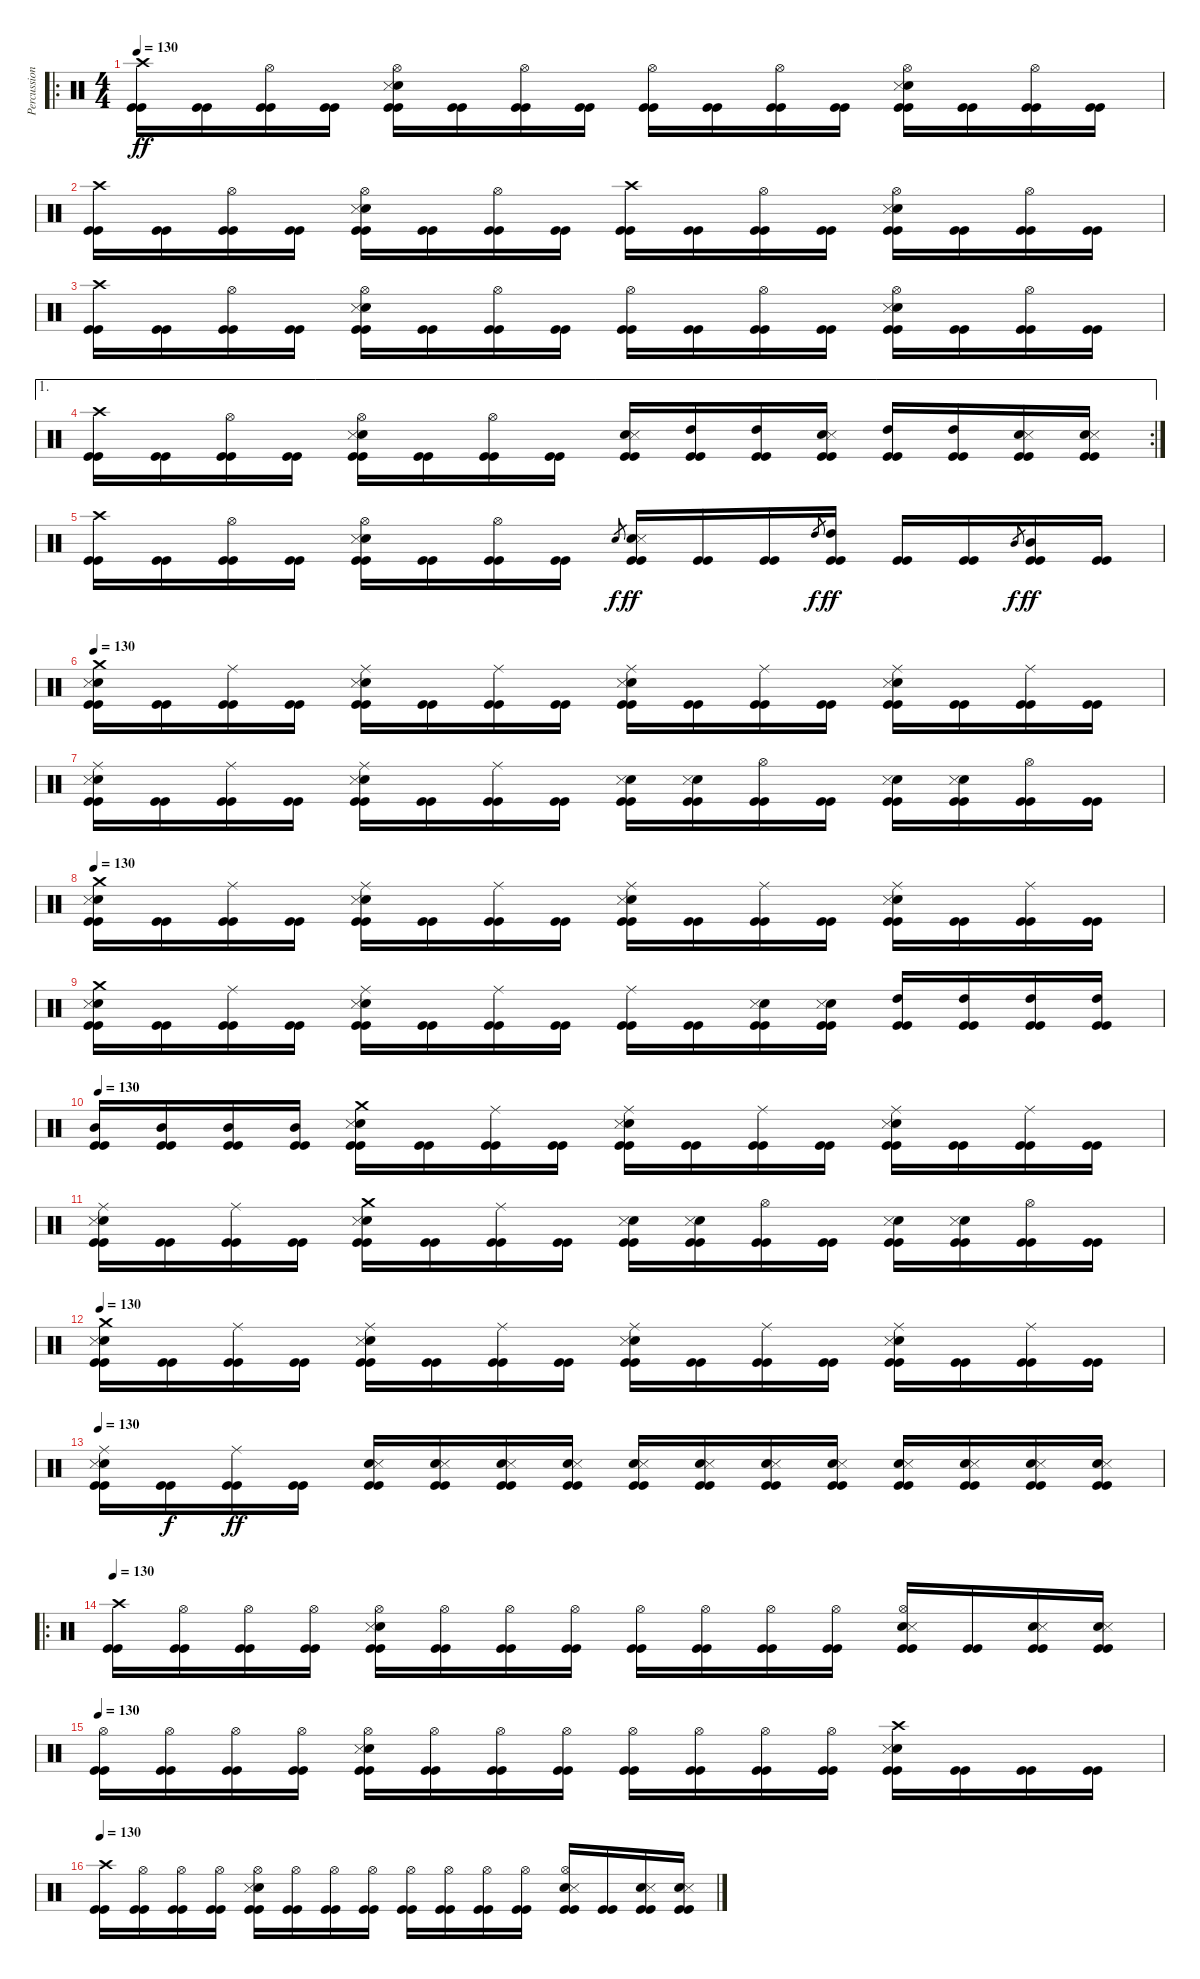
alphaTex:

\track ("Percussion" "Percussion") {instrument percussion}
\staff {score}
\articulation defaults
\ro
\ts (4 4)
\tempo 130
\clef neutral
\ks c
("Crash high (hit)" "Kick (hit)" "Kick (hit)").16{dy ff} ("Kick (hit)" "Kick (hit)").16 ("Hi-Hat (open)" "Kick (hit)" "Kick (hit)").16 ("Kick (hit)" "Kick (hit)").16 ("Electric Snare (hit)" "Snare (side stick) 3" "Hi-Hat (open)" "Kick (hit)" "Kick (hit)").16 ("Kick (hit)" "Kick (hit)").16 ("Hi-Hat (open)" "Kick (hit)" "Kick (hit)").16 ("Kick (hit)" "Kick (hit)").16 ("Hi-Hat (open)" "Kick (hit)" "Kick (hit)").16 ("Kick (hit)" "Kick (hit)").16 ("Hi-Hat (open)" "Kick (hit)" "Kick (hit)").16 ("Kick (hit)" "Kick (hit)").16 ("Electric Snare (hit)" "Snare (side stick) 3" "Hi-Hat (open)" "Kick (hit)" "Kick (hit)").16 ("Kick (hit)" "Kick (hit)").16 ("Hi-Hat (open)" "Kick (hit)" "Kick (hit)").16 ("Kick (hit)" "Kick (hit)").16 |
("Crash high (hit)" "Kick (hit)" "Kick (hit)").16 ("Kick (hit)" "Kick (hit)").16 ("Hi-Hat (open)" "Kick (hit)" "Kick (hit)").16 ("Kick (hit)" "Kick (hit)").16 ("Electric Snare (hit)" "Snare (side stick) 3" "Hi-Hat (open)" "Kick (hit)" "Kick (hit)").16 ("Kick (hit)" "Kick (hit)").16 ("Hi-Hat (open)" "Kick (hit)" "Kick (hit)").16 ("Kick (hit)" "Kick (hit)").16 ("Crash high (hit)" "Kick (hit)" "Kick (hit)").16 ("Kick (hit)" "Kick (hit)").16 ("Hi-Hat (open)" "Kick (hit)" "Kick (hit)").16 ("Kick (hit)" "Kick (hit)").16 ("Electric Snare (hit)" "Snare (side stick) 3" "Hi-Hat (open)" "Kick (hit)" "Kick (hit)").16 ("Kick (hit)" "Kick (hit)").16 ("Hi-Hat (open)" "Kick (hit)" "Kick (hit)").16 ("Kick (hit)" "Kick (hit)").16 |
("Crash high (hit)" "Kick (hit)" "Kick (hit)").16 ("Kick (hit)" "Kick (hit)").16 ("Hi-Hat (open)" "Kick (hit)" "Kick (hit)").16 ("Kick (hit)" "Kick (hit)").16 ("Electric Snare (hit)" "Snare (side stick) 3" "Hi-Hat (open)" "Kick (hit)" "Kick (hit)").16 ("Kick (hit)" "Kick (hit)").16 ("Hi-Hat (open)" "Kick (hit)" "Kick (hit)").16 ("Kick (hit)" "Kick (hit)").16 ("Hi-Hat (open)" "Kick (hit)" "Kick (hit)").16 ("Kick (hit)" "Kick (hit)").16 ("Hi-Hat (open)" "Kick (hit)" "Kick (hit)").16 ("Kick (hit)" "Kick (hit)").16 ("Electric Snare (hit)" "Snare (side stick) 3" "Hi-Hat (open)" "Kick (hit)" "Kick (hit)").16 ("Kick (hit)" "Kick (hit)").16 ("Hi-Hat (open)" "Kick (hit)" "Kick (hit)").16 ("Kick (hit)" "Kick (hit)").16 |
\ae 1
\rc 2
("Crash high (hit)" "Kick (hit)" "Kick (hit)").16 ("Kick (hit)" "Kick (hit)").16 ("Hi-Hat (open)" "Kick (hit)" "Kick (hit)").16 ("Kick (hit)" "Kick (hit)").16 ("Electric Snare (hit)" "Snare (side stick) 3" "Hi-Hat (open)" "Kick (hit)" "Kick (hit)").16 ("Kick (hit)" "Kick (hit)").16 ("Hi-Hat (open)" "Kick (hit)" "Kick (hit)").16 ("Kick (hit)" "Kick (hit)").16 ("Electric Snare (hit)" "Snare (side stick) 3" "Kick (hit)" "Kick (hit)").16 ("High Tom (hit)" "Kick (hit)" "Kick (hit)").16 ("High Tom (hit)" "Kick (hit)" "Kick (hit)").16 ("Electric Snare (hit)" "Snare (side stick) 3" "Kick (hit)" "Kick (hit)").16 ("High Tom (hit)" "Kick (hit)" "Kick (hit)").16 ("High Tom (hit)" "Kick (hit)" "Kick (hit)").16 ("Electric Snare (hit)" "Snare (side stick) 3" "Kick (hit)" "Kick (hit)").16 ("Electric Snare (hit)" "Snare (side stick) 3" "Kick (hit)" "Kick (hit)").16 |
("Crash high (hit)" "Kick (hit)" "Kick (hit)").16 ("Kick (hit)" "Kick (hit)").16 ("Hi-Hat (open)" "Kick (hit)" "Kick (hit)").16 ("Kick (hit)" "Kick (hit)").16 ("Electric Snare (hit)" "Snare (side stick) 3" "Hi-Hat (open)" "Kick (hit)" "Kick (hit)").16 ("Kick (hit)" "Kick (hit)").16 ("Hi-Hat (open)" "Kick (hit)" "Kick (hit)").16 ("Kick (hit)" "Kick (hit)").16 "Electric Snare (hit)".8{gr dy f} ("Electric Snare (hit)" "Snare (side stick) 3" "Kick (hit)" "Kick (hit)").16{dy ff} ("Kick (hit)" "Kick (hit)").16 ("Kick (hit)" "Kick (hit)").16 "High Tom (hit)".8{gr dy f} ("High Tom (hit)" "Kick (hit)" "Kick (hit)").16{dy ff} ("Kick (hit)" "Kick (hit)").16 ("Kick (hit)" "Kick (hit)").16 "Mid Tom (hit)".8{gr dy f} ("Mid Tom (hit)" "Kick (hit)" "Kick (hit)").16{dy ff} ("Kick (hit)" "Kick (hit)").16 |
\tempo 130
("Electric Snare (hit)" "Snare (side stick) 3" "Crash medium (hit)" "Kick (hit)" "Kick (hit)").16 ("Kick (hit)" "Kick (hit)").16 ("Ride (middle)" "Kick (hit)" "Kick (hit)").16 ("Kick (hit)" "Kick (hit)").16 ("Electric Snare (hit)" "Snare (side stick) 3" "Ride (middle)" "Kick (hit)" "Kick (hit)").16 ("Kick (hit)" "Kick (hit)").16 ("Ride (middle)" "Kick (hit)" "Kick (hit)").16 ("Kick (hit)" "Kick (hit)").16 ("Electric Snare (hit)" "Snare (side stick) 3" "Ride (middle)" "Kick (hit)" "Kick (hit)").16 ("Kick (hit)" "Kick (hit)").16 ("Ride (middle)" "Kick (hit)" "Kick (hit)").16 ("Kick (hit)" "Kick (hit)").16 ("Electric Snare (hit)" "Snare (side stick) 3" "Ride (middle)" "Kick (hit)" "Kick (hit)").16 ("Kick (hit)" "Kick (hit)").16 ("Ride (middle)" "Kick (hit)" "Kick (hit)").16 ("Kick (hit)" "Kick (hit)").16 |
("Electric Snare (hit)" "Snare (side stick) 3" "Ride (middle)" "Kick (hit)" "Kick (hit)").16 ("Kick (hit)" "Kick (hit)").16 ("Ride (middle)" "Kick (hit)" "Kick (hit)").16 ("Kick (hit)" "Kick (hit)").16 ("Electric Snare (hit)" "Snare (side stick) 3" "Ride (middle)" "Kick (hit)" "Kick (hit)").16 ("Kick (hit)" "Kick (hit)").16 ("Ride (middle)" "Kick (hit)" "Kick (hit)").16 ("Kick (hit)" "Kick (hit)").16 ("Electric Snare (hit)" "Snare (side stick) 3" "Kick (hit)" "Kick (hit)").16 ("Electric Snare (hit)" "Snare (side stick) 3" "Kick (hit)" "Kick (hit)").16 ("Hi-Hat (open)" "Kick (hit)" "Kick (hit)").16 ("Kick (hit)" "Kick (hit)").16 ("Electric Snare (hit)" "Snare (side stick) 3" "Kick (hit)" "Kick (hit)").16 ("Electric Snare (hit)" "Snare (side stick) 3" "Kick (hit)" "Kick (hit)").16 ("Hi-Hat (open)" "Kick (hit)" "Kick (hit)").16 ("Kick (hit)" "Kick (hit)").16 |
\tempo 130
("Electric Snare (hit)" "Snare (side stick) 3" "Crash medium (hit)" "Kick (hit)" "Kick (hit)").16 ("Kick (hit)" "Kick (hit)").16 ("Ride (middle)" "Kick (hit)" "Kick (hit)").16 ("Kick (hit)" "Kick (hit)").16 ("Electric Snare (hit)" "Snare (side stick) 3" "Ride (middle)" "Kick (hit)" "Kick (hit)").16 ("Kick (hit)" "Kick (hit)").16 ("Ride (middle)" "Kick (hit)" "Kick (hit)").16 ("Kick (hit)" "Kick (hit)").16 ("Electric Snare (hit)" "Snare (side stick) 3" "Ride (middle)" "Kick (hit)" "Kick (hit)").16 ("Kick (hit)" "Kick (hit)").16 ("Ride (middle)" "Kick (hit)" "Kick (hit)").16 ("Kick (hit)" "Kick (hit)").16 ("Electric Snare (hit)" "Snare (side stick) 3" "Ride (middle)" "Kick (hit)" "Kick (hit)").16 ("Kick (hit)" "Kick (hit)").16 ("Ride (middle)" "Kick (hit)" "Kick (hit)").16 ("Kick (hit)" "Kick (hit)").16 |
("Kick (hit)" "Crash medium (hit)" "Electric Snare (hit)" "Snare (side stick) 3" "Kick (hit)").16 ("Kick (hit)" "Kick (hit)").16 ("Ride (middle)" "Kick (hit)" "Kick (hit)").16 ("Kick (hit)" "Kick (hit)").16 ("Kick (hit)" "Ride (middle)" "Electric Snare (hit)" "Snare (side stick) 3" "Kick (hit)").16 ("Kick (hit)" "Kick (hit)").16 ("Ride (middle)" "Kick (hit)" "Kick (hit)").16 ("Kick (hit)" "Kick (hit)").16 ("Ride (middle)" "Kick (hit)" "Kick (hit)").16 ("Kick (hit)" "Kick (hit)").16 ("Electric Snare (hit)" "Snare (side stick) 3" "Kick (hit)" "Kick (hit)").16 ("Electric Snare (hit)" "Snare (side stick) 3" "Kick (hit)" "Kick (hit)").16 ("High Tom (hit)" "Kick (hit)" "Kick (hit)").16 ("High Tom (hit)" "Kick (hit)" "Kick (hit)").16 ("High Tom (hit)" "Kick (hit)" "Kick (hit)").16 ("High Tom (hit)" "Kick (hit)" "Kick (hit)").16 |
\tempo 130
("Mid Tom (hit)" "Kick (hit)" "Kick (hit)").16 ("Mid Tom (hit)" "Kick (hit)" "Kick (hit)").16 ("Mid Tom (hit)" "Kick (hit)" "Kick (hit)").16 ("Mid Tom (hit)" "Kick (hit)" "Kick (hit)").16 ("Electric Snare (hit)" "Snare (side stick) 3" "Crash medium (hit)" "Kick (hit)" "Kick (hit)").16 ("Kick (hit)" "Kick (hit)").16 ("Ride (middle)" "Kick (hit)" "Kick (hit)").16 ("Kick (hit)" "Kick (hit)").16 ("Electric Snare (hit)" "Snare (side stick) 3" "Ride (middle)" "Kick (hit)" "Kick (hit)").16 ("Kick (hit)" "Kick (hit)").16 ("Ride (middle)" "Kick (hit)" "Kick (hit)").16 ("Kick (hit)" "Kick (hit)").16 ("Electric Snare (hit)" "Snare (side stick) 3" "Ride (middle)" "Kick (hit)" "Kick (hit)").16 ("Kick (hit)" "Kick (hit)").16 ("Ride (middle)" "Kick (hit)" "Kick (hit)").16 ("Kick (hit)" "Kick (hit)").16 |
("Electric Snare (hit)" "Snare (side stick) 3" "Ride (middle)" "Kick (hit)" "Kick (hit)").16 ("Kick (hit)" "Kick (hit)").16 ("Ride (middle)" "Kick (hit)" "Kick (hit)").16 ("Kick (hit)" "Kick (hit)").16 ("Electric Snare (hit)" "Snare (side stick) 3" "Crash medium (hit)" "Kick (hit)" "Kick (hit)").16 ("Kick (hit)" "Kick (hit)").16 ("Ride (middle)" "Kick (hit)" "Kick (hit)").16 ("Kick (hit)" "Kick (hit)").16 ("Electric Snare (hit)" "Snare (side stick) 3" "Kick (hit)" "Kick (hit)").16 ("Electric Snare (hit)" "Snare (side stick) 3" "Kick (hit)" "Kick (hit)").16 ("Hi-Hat (open)" "Kick (hit)" "Kick (hit)").16 ("Kick (hit)" "Kick (hit)").16 ("Electric Snare (hit)" "Snare (side stick) 3" "Kick (hit)" "Kick (hit)").16 ("Electric Snare (hit)" "Snare (side stick) 3" "Kick (hit)" "Kick (hit)").16 ("Hi-Hat (open)" "Kick (hit)" "Kick (hit)").16 ("Kick (hit)" "Kick (hit)").16 |
\tempo 130
("Electric Snare (hit)" "Snare (side stick) 3" "Crash medium (hit)" "Kick (hit)" "Kick (hit)").16 ("Kick (hit)" "Kick (hit)").16 ("Ride (middle)" "Kick (hit)" "Kick (hit)").16 ("Kick (hit)" "Kick (hit)").16 ("Electric Snare (hit)" "Snare (side stick) 3" "Ride (middle)" "Kick (hit)" "Kick (hit)").16 ("Kick (hit)" "Kick (hit)").16 ("Ride (middle)" "Kick (hit)" "Kick (hit)").16 ("Kick (hit)" "Kick (hit)").16 ("Electric Snare (hit)" "Snare (side stick) 3" "Ride (middle)" "Kick (hit)" "Kick (hit)").16 ("Kick (hit)" "Kick (hit)").16 ("Ride (middle)" "Kick (hit)" "Kick (hit)").16 ("Kick (hit)" "Kick (hit)").16 ("Electric Snare (hit)" "Snare (side stick) 3" "Ride (middle)" "Kick (hit)" "Kick (hit)").16 ("Kick (hit)" "Kick (hit)").16 ("Ride (middle)" "Kick (hit)" "Kick (hit)").16 ("Kick (hit)" "Kick (hit)").16 |
\tempo 130
("Electric Snare (hit)" "Snare (side stick) 3" "Ride (middle)" "Kick (hit)" "Kick (hit)").16 ("Kick (hit)" "Kick (hit)").16{dy f} ("Ride (middle)" "Kick (hit)" "Kick (hit)").16{dy ff} ("Kick (hit)" "Kick (hit)").16 ("Electric Snare (hit)" "Snare (side stick) 3" "Kick (hit)" "Kick (hit)").16 ("Electric Snare (hit)" "Snare (side stick) 3" "Kick (hit)" "Kick (hit)").16 ("Electric Snare (hit)" "Snare (side stick) 3" "Kick (hit)" "Kick (hit)").16 ("Electric Snare (hit)" "Snare (side stick) 3" "Kick (hit)" "Kick (hit)").16 ("Electric Snare (hit)" "Snare (side stick) 3" "Kick (hit)" "Kick (hit)").16 ("Electric Snare (hit)" "Snare (side stick) 3" "Kick (hit)" "Kick (hit)").16 ("Electric Snare (hit)" "Snare (side stick) 3" "Kick (hit)" "Kick (hit)").16 ("Electric Snare (hit)" "Snare (side stick) 3" "Kick (hit)" "Kick (hit)").16 ("Electric Snare (hit)" "Snare (side stick) 3" "Kick (hit)" "Kick (hit)").16 ("Electric Snare (hit)" "Snare (side stick) 3" "Kick (hit)" "Kick (hit)").16 ("Electric Snare (hit)" "Snare (side stick) 3" "Kick (hit)" "Kick (hit)").16 ("Electric Snare (hit)" "Snare (side stick) 3" "Kick (hit)" "Kick (hit)").16 |
\ro
\tempo 130
("Crash high (hit)" "Kick (hit)" "Kick (hit)").16 ("Hi-Hat (open)" "Kick (hit)" "Kick (hit)").16 ("Hi-Hat (open)" "Kick (hit)" "Kick (hit)").16 ("Hi-Hat (open)" "Kick (hit)" "Kick (hit)").16 ("Electric Snare (hit)" "Snare (side stick) 3" "Hi-Hat (open)" "Kick (hit)" "Kick (hit)").16 ("Hi-Hat (open)" "Kick (hit)" "Kick (hit)").16 ("Hi-Hat (open)" "Kick (hit)" "Kick (hit)").16 ("Hi-Hat (open)" "Kick (hit)" "Kick (hit)").16 ("Hi-Hat (open)" "Kick (hit)" "Kick (hit)").16 ("Hi-Hat (open)" "Kick (hit)" "Kick (hit)").16 ("Hi-Hat (open)" "Kick (hit)" "Kick (hit)").16 ("Hi-Hat (open)" "Kick (hit)" "Kick (hit)").16 ("Electric Snare (hit)" "Snare (side stick) 3" "Hi-Hat (open)" "Kick (hit)" "Kick (hit)").16 ("Kick (hit)" "Kick (hit)").16 ("Electric Snare (hit)" "Snare (side stick) 3" "Kick (hit)" "Kick (hit)").16 ("Electric Snare (hit)" "Snare (side stick) 3" "Kick (hit)" "Kick (hit)").16 |
\tempo 130
("Hi-Hat (open)" "Kick (hit)" "Kick (hit)").16 ("Hi-Hat (open)" "Kick (hit)" "Kick (hit)").16 ("Hi-Hat (open)" "Kick (hit)" "Kick (hit)").16 ("Hi-Hat (open)" "Kick (hit)" "Kick (hit)").16 ("Electric Snare (hit)" "Snare (side stick) 3" "Hi-Hat (open)" "Kick (hit)" "Kick (hit)").16 ("Hi-Hat (open)" "Kick (hit)" "Kick (hit)").16 ("Hi-Hat (open)" "Kick (hit)" "Kick (hit)").16 ("Hi-Hat (open)" "Kick (hit)" "Kick (hit)").16 ("Hi-Hat (open)" "Kick (hit)" "Kick (hit)").16 ("Hi-Hat (open)" "Kick (hit)" "Kick (hit)").16 ("Hi-Hat (open)" "Kick (hit)" "Kick (hit)").16 ("Hi-Hat (open)" "Kick (hit)" "Kick (hit)").16 ("Electric Snare (hit)" "Snare (side stick) 3" "Crash high (hit)" "Kick (hit)" "Kick (hit)").16 ("Kick (hit)" "Kick (hit)").16 ("Kick (hit)" "Kick (hit)").16 ("Kick (hit)" "Kick (hit)").16 |
\tempo 130
("Crash high (hit)" "Kick (hit)" "Kick (hit)").16 ("Hi-Hat (open)" "Kick (hit)" "Kick (hit)").16 ("Hi-Hat (open)" "Kick (hit)" "Kick (hit)").16 ("Hi-Hat (open)" "Kick (hit)" "Kick (hit)").16 ("Electric Snare (hit)" "Snare (side stick) 3" "Hi-Hat (open)" "Kick (hit)" "Kick (hit)").16 ("Hi-Hat (open)" "Kick (hit)" "Kick (hit)").16 ("Hi-Hat (open)" "Kick (hit)" "Kick (hit)").16 ("Hi-Hat (open)" "Kick (hit)" "Kick (hit)").16 ("Hi-Hat (open)" "Kick (hit)" "Kick (hit)").16 ("Hi-Hat (open)" "Kick (hit)" "Kick (hit)").16 ("Hi-Hat (open)" "Kick (hit)" "Kick (hit)").16 ("Hi-Hat (open)" "Kick (hit)" "Kick (hit)").16 ("Electric Snare (hit)" "Snare (side stick) 3" "Hi-Hat (open)" "Kick (hit)" "Kick (hit)").16 ("Kick (hit)" "Kick (hit)").16 ("Electric Snare (hit)" "Snare (side stick) 3" "Kick (hit)" "Kick (hit)").16 ("Electric Snare (hit)" "Snare (side stick) 3" "Kick (hit)" "Kick (hit)").16
